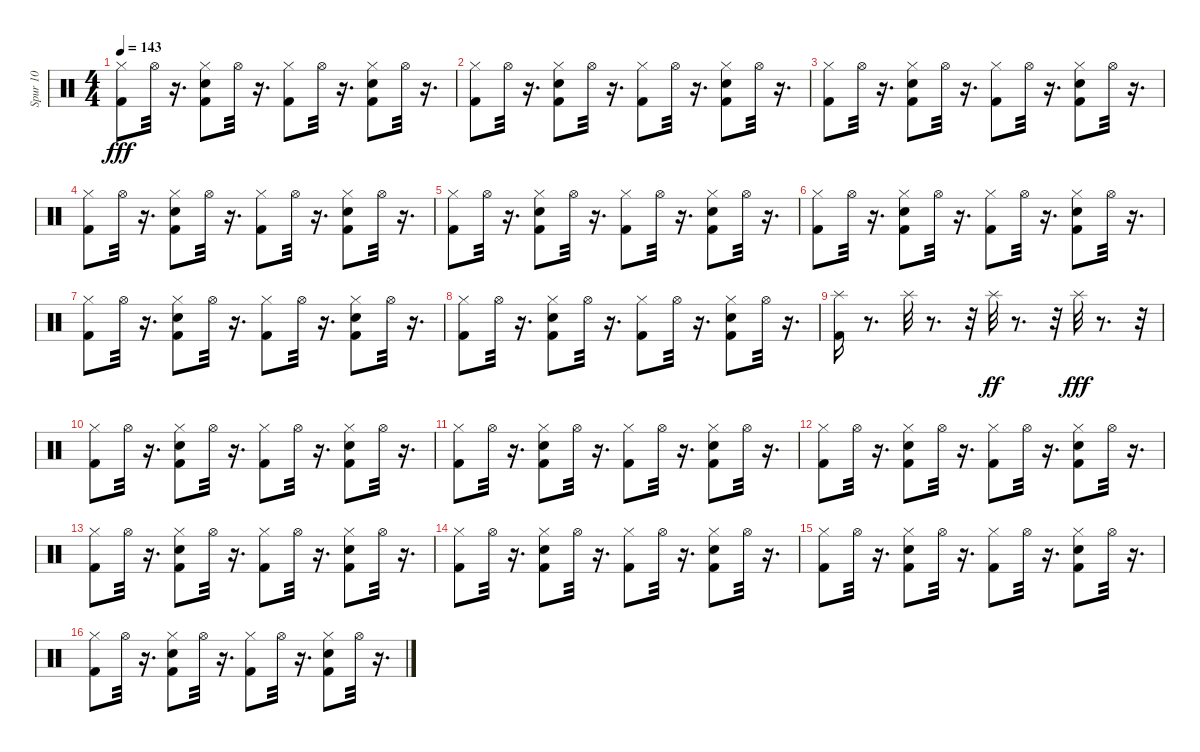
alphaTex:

\track ("Spur 10" "Spur 10") {instrument percussion}
\staff {score}
\articulation defaults
\ts (4 4)
\tempo 143
\clef neutral
\ks c
("Hi-Hat (closed)" "Kick (hit) 2").8{dy fff} "Hi-Hat (open)".32 r.16{d} ("Hi-Hat (closed)" "Electric Snare (hit)" "Kick (hit) 2").8 "Hi-Hat (open)".32 r.16{d} ("Hi-Hat (closed)" "Kick (hit) 2").8 "Hi-Hat (open)".32 r.16{d} ("Hi-Hat (closed)" "Electric Snare (hit)" "Kick (hit) 2").8 "Hi-Hat (open)".32 r.16{d} |
("Hi-Hat (closed)" "Kick (hit) 2").8 "Hi-Hat (open)".32 r.16{d} ("Hi-Hat (closed)" "Electric Snare (hit)" "Kick (hit) 2").8 "Hi-Hat (open)".32 r.16{d} ("Hi-Hat (closed)" "Kick (hit) 2").8 "Hi-Hat (open)".32 r.16{d} ("Hi-Hat (closed)" "Electric Snare (hit)" "Kick (hit) 2").8 "Hi-Hat (open)".32 r.16{d} |
("Hi-Hat (closed)" "Kick (hit) 2").8 "Hi-Hat (open)".32 r.16{d} ("Hi-Hat (closed)" "Electric Snare (hit)" "Kick (hit) 2").8 "Hi-Hat (open)".32 r.16{d} ("Hi-Hat (closed)" "Kick (hit) 2").8 "Hi-Hat (open)".32 r.16{d} ("Hi-Hat (closed)" "Electric Snare (hit)" "Kick (hit) 2").8 "Hi-Hat (open)".32 r.16{d} |
("Hi-Hat (closed)" "Kick (hit) 2").8 "Hi-Hat (open)".32 r.16{d} ("Hi-Hat (closed)" "Electric Snare (hit)" "Kick (hit) 2").8 "Hi-Hat (open)".32 r.16{d} ("Hi-Hat (closed)" "Kick (hit) 2").8 "Hi-Hat (open)".32 r.16{d} ("Hi-Hat (closed)" "Electric Snare (hit)" "Kick (hit) 2").8 "Hi-Hat (open)".32 r.16{d} |
("Hi-Hat (closed)" "Kick (hit) 2").8 "Hi-Hat (open)".32 r.16{d} ("Hi-Hat (closed)" "Electric Snare (hit)" "Kick (hit) 2").8 "Hi-Hat (open)".32 r.16{d} ("Hi-Hat (closed)" "Kick (hit) 2").8 "Hi-Hat (open)".32 r.16{d} ("Hi-Hat (closed)" "Electric Snare (hit)" "Kick (hit) 2").8 "Hi-Hat (open)".32 r.16{d} |
("Hi-Hat (closed)" "Kick (hit) 2").8 "Hi-Hat (open)".32 r.16{d} ("Hi-Hat (closed)" "Electric Snare (hit)" "Kick (hit) 2").8 "Hi-Hat (open)".32 r.16{d} ("Hi-Hat (closed)" "Kick (hit) 2").8 "Hi-Hat (open)".32 r.16{d} ("Hi-Hat (closed)" "Electric Snare (hit)" "Kick (hit) 2").8 "Hi-Hat (open)".32 r.16{d} |
("Hi-Hat (closed)" "Kick (hit) 2").8 "Hi-Hat (open)".32 r.16{d} ("Hi-Hat (closed)" "Electric Snare (hit)" "Kick (hit) 2").8 "Hi-Hat (open)".32 r.16{d} ("Hi-Hat (closed)" "Kick (hit) 2").8 "Hi-Hat (open)".32 r.16{d} ("Hi-Hat (closed)" "Electric Snare (hit)" "Kick (hit) 2").8 "Hi-Hat (open)".32 r.16{d} |
("Hi-Hat (closed)" "Kick (hit) 2").8 "Hi-Hat (open)".32 r.16{d} ("Hi-Hat (closed)" "Electric Snare (hit)" "Kick (hit) 2").8 "Hi-Hat (open)".32 r.16{d} ("Hi-Hat (closed)" "Kick (hit) 2").8 "Hi-Hat (open)".32 r.16{d} ("Hi-Hat (closed)" "Electric Snare (hit)" "Kick (hit) 2").8 "Hi-Hat (open)".32 r.16{d} |
("Splash (hit)" "Kick (hit) 2").16 r.8{d} "Splash (hit)".32 r.8{d} r.32 "Splash (hit)".32{dy ff} r.8{d} r.32 "Splash (hit)".32{dy fff} r.8{d} r.32 |
("Hi-Hat (closed)" "Kick (hit) 2").8 "Hi-Hat (open)".32 r.16{d} ("Hi-Hat (closed)" "Electric Snare (hit)" "Kick (hit) 2").8 "Hi-Hat (open)".32 r.16{d} ("Hi-Hat (closed)" "Kick (hit) 2").8 "Hi-Hat (open)".32 r.16{d} ("Hi-Hat (closed)" "Electric Snare (hit)" "Kick (hit) 2").8 "Hi-Hat (open)".32 r.16{d} |
("Hi-Hat (closed)" "Kick (hit) 2").8 "Hi-Hat (open)".32 r.16{d} ("Hi-Hat (closed)" "Electric Snare (hit)" "Kick (hit) 2").8 "Hi-Hat (open)".32 r.16{d} ("Hi-Hat (closed)" "Kick (hit) 2").8 "Hi-Hat (open)".32 r.16{d} ("Hi-Hat (closed)" "Electric Snare (hit)" "Kick (hit) 2").8 "Hi-Hat (open)".32 r.16{d} |
("Hi-Hat (closed)" "Kick (hit) 2").8 "Hi-Hat (open)".32 r.16{d} ("Hi-Hat (closed)" "Electric Snare (hit)" "Kick (hit) 2").8 "Hi-Hat (open)".32 r.16{d} ("Hi-Hat (closed)" "Kick (hit) 2").8 "Hi-Hat (open)".32 r.16{d} ("Hi-Hat (closed)" "Electric Snare (hit)" "Kick (hit) 2").8 "Hi-Hat (open)".32 r.16{d} |
("Hi-Hat (closed)" "Kick (hit) 2").8 "Hi-Hat (open)".32 r.16{d} ("Hi-Hat (closed)" "Electric Snare (hit)" "Kick (hit) 2").8 "Hi-Hat (open)".32 r.16{d} ("Hi-Hat (closed)" "Kick (hit) 2").8 "Hi-Hat (open)".32 r.16{d} ("Hi-Hat (closed)" "Electric Snare (hit)" "Kick (hit) 2").8 "Hi-Hat (open)".32 r.16{d} |
("Hi-Hat (closed)" "Kick (hit) 2").8 "Hi-Hat (open)".32 r.16{d} ("Hi-Hat (closed)" "Electric Snare (hit)" "Kick (hit) 2").8 "Hi-Hat (open)".32 r.16{d} ("Hi-Hat (closed)" "Kick (hit) 2").8 "Hi-Hat (open)".32 r.16{d} ("Hi-Hat (closed)" "Electric Snare (hit)" "Kick (hit) 2").8 "Hi-Hat (open)".32 r.16{d} |
("Hi-Hat (closed)" "Kick (hit) 2").8 "Hi-Hat (open)".32 r.16{d} ("Hi-Hat (closed)" "Electric Snare (hit)" "Kick (hit) 2").8 "Hi-Hat (open)".32 r.16{d} ("Hi-Hat (closed)" "Kick (hit) 2").8 "Hi-Hat (open)".32 r.16{d} ("Hi-Hat (closed)" "Electric Snare (hit)" "Kick (hit) 2").8 "Hi-Hat (open)".32 r.16{d} |
("Hi-Hat (closed)" "Kick (hit) 2").8 "Hi-Hat (open)".32 r.16{d} ("Hi-Hat (closed)" "Electric Snare (hit)" "Kick (hit) 2").8 "Hi-Hat (open)".32 r.16{d} ("Hi-Hat (closed)" "Kick (hit) 2").8 "Hi-Hat (open)".32 r.16{d} ("Hi-Hat (closed)" "Electric Snare (hit)" "Kick (hit) 2").8 "Hi-Hat (open)".32 r.16{d}
